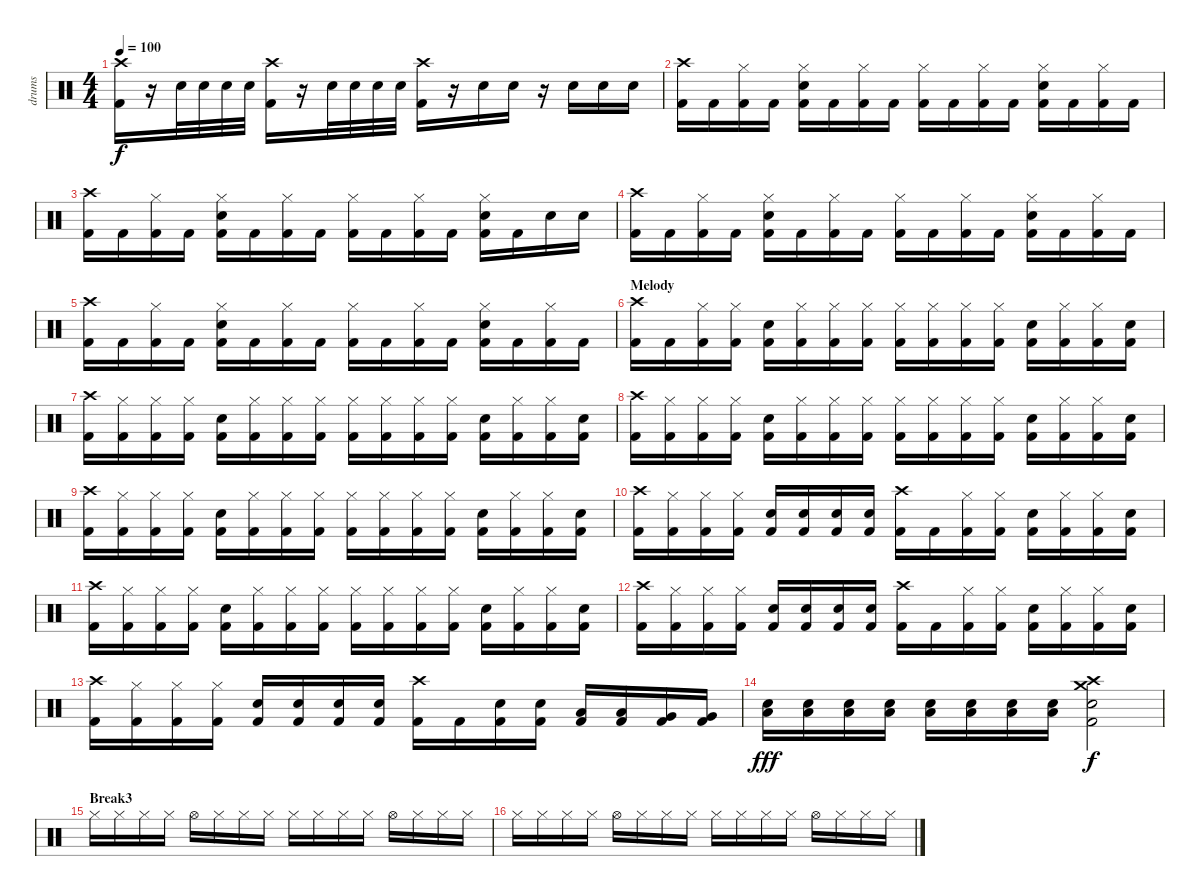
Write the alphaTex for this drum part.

\track ("drums" "drums") {instrument percussion}
\staff {score}
\articulation defaults
\ts (4 4)
\tempo 100
\clef neutral
\ks c
("Crash high (hit)" "Kick (hit) 2").16{dy f} r.16 "Snare (hit) 2".32 "Snare (hit) 2".32 "Snare (hit) 2".32 "Snare (hit) 2".32 ("Crash high (hit)" "Kick (hit) 2").16 r.16 "Snare (hit) 2".32 "Snare (hit) 2".32 "Snare (hit) 2".32 "Snare (hit) 2".32 ("Crash high (hit)" "Kick (hit) 2").16 r.16 "Snare (hit) 2".16 "Snare (hit) 2".16 r.16 "Snare (hit) 2".16 "Snare (hit) 2".16 "Snare (hit) 2".16 |
("Crash high (hit)" "Kick (hit) 2").16 "Kick (hit) 2".16 ("Hi-Hat (closed)" "Kick (hit) 2").16 "Kick (hit) 2".16 ("Hi-Hat (closed)" "Snare (hit) 2" "Kick (hit) 2").16 "Kick (hit) 2".16 ("Hi-Hat (closed)" "Kick (hit) 2").16 "Kick (hit) 2".16 ("Hi-Hat (closed)" "Kick (hit) 2").16 "Kick (hit) 2".16 ("Hi-Hat (closed)" "Kick (hit) 2").16 "Kick (hit) 2".16 ("Hi-Hat (closed)" "Snare (hit) 2" "Kick (hit) 2").16 "Kick (hit) 2".16 ("Hi-Hat (closed)" "Kick (hit) 2").16 "Kick (hit) 2".16 |
("Crash high (hit)" "Kick (hit) 2").16 "Kick (hit) 2".16 ("Hi-Hat (closed)" "Kick (hit) 2").16 "Kick (hit) 2".16 ("Hi-Hat (closed)" "Snare (hit) 2" "Kick (hit) 2").16 "Kick (hit) 2".16 ("Hi-Hat (closed)" "Kick (hit) 2").16 "Kick (hit) 2".16 ("Hi-Hat (closed)" "Kick (hit) 2").16 "Kick (hit) 2".16 ("Hi-Hat (closed)" "Kick (hit) 2").16 "Kick (hit) 2".16 ("Hi-Hat (closed)" "Snare (hit) 2" "Kick (hit) 2").16 "Kick (hit) 2".16 "Snare (hit) 2".16 "Snare (hit) 2".16 |
("Crash high (hit)" "Kick (hit) 2").16 "Kick (hit) 2".16 ("Hi-Hat (closed)" "Kick (hit) 2").16 "Kick (hit) 2".16 ("Hi-Hat (closed)" "Snare (hit) 2" "Kick (hit) 2").16 "Kick (hit) 2".16 ("Hi-Hat (closed)" "Kick (hit) 2").16 "Kick (hit) 2".16 ("Hi-Hat (closed)" "Kick (hit) 2").16 "Kick (hit) 2".16 ("Hi-Hat (closed)" "Kick (hit) 2").16 "Kick (hit) 2".16 ("Hi-Hat (closed)" "Snare (hit) 2" "Kick (hit) 2").16 "Kick (hit) 2".16 ("Hi-Hat (closed)" "Kick (hit) 2").16 "Kick (hit) 2".16 |
("Crash high (hit)" "Kick (hit) 2").16 "Kick (hit) 2".16 ("Hi-Hat (closed)" "Kick (hit) 2").16 "Kick (hit) 2".16 ("Hi-Hat (closed)" "Snare (hit) 2" "Kick (hit) 2").16 "Kick (hit) 2".16 ("Hi-Hat (closed)" "Kick (hit) 2").16 "Kick (hit) 2".16 ("Hi-Hat (closed)" "Kick (hit) 2").16 "Kick (hit) 2".16 ("Hi-Hat (closed)" "Kick (hit) 2").16 "Kick (hit) 2".16 ("Hi-Hat (closed)" "Snare (hit) 2" "Kick (hit) 2").16 "Kick (hit) 2".16 ("Hi-Hat (closed)" "Kick (hit) 2").16 "Kick (hit) 2".16 |
\section ("" "Melody")
("Crash high (hit)" "Kick (hit) 2").16 "Kick (hit) 2".16 ("Hi-Hat (closed)" "Kick (hit) 2").16 ("Hi-Hat (closed)" "Kick (hit) 2").16 ("Snare (hit) 2" "Kick (hit) 2").16 ("Hi-Hat (closed)" "Kick (hit) 2").16 ("Hi-Hat (closed)" "Kick (hit) 2").16 ("Hi-Hat (closed)" "Kick (hit) 2").16 ("Hi-Hat (closed)" "Kick (hit) 2").16 ("Hi-Hat (closed)" "Kick (hit) 2").16 ("Hi-Hat (closed)" "Kick (hit) 2").16 ("Hi-Hat (closed)" "Kick (hit) 2").16 ("Snare (hit) 2" "Kick (hit) 2").16 ("Hi-Hat (closed)" "Kick (hit) 2").16 ("Hi-Hat (closed)" "Kick (hit) 2").16 ("Snare (hit) 2" "Kick (hit) 2").16 |
("Crash high (hit)" "Kick (hit) 2").16 ("Hi-Hat (closed)" "Kick (hit) 2").16 ("Hi-Hat (closed)" "Kick (hit) 2").16 ("Hi-Hat (closed)" "Kick (hit) 2").16 ("Snare (hit) 2" "Kick (hit) 2").16 ("Hi-Hat (closed)" "Kick (hit) 2").16 ("Hi-Hat (closed)" "Kick (hit) 2").16 ("Hi-Hat (closed)" "Kick (hit) 2").16 ("Hi-Hat (closed)" "Kick (hit) 2").16 ("Hi-Hat (closed)" "Kick (hit) 2").16 ("Hi-Hat (closed)" "Kick (hit) 2").16 ("Hi-Hat (closed)" "Kick (hit) 2").16 ("Snare (hit) 2" "Kick (hit) 2").16 ("Hi-Hat (closed)" "Kick (hit) 2").16 ("Hi-Hat (closed)" "Kick (hit) 2").16 ("Snare (hit) 2" "Kick (hit) 2").16 |
("Crash high (hit)" "Kick (hit) 2").16 ("Hi-Hat (closed)" "Kick (hit) 2").16 ("Hi-Hat (closed)" "Kick (hit) 2").16 ("Hi-Hat (closed)" "Kick (hit) 2").16 ("Snare (hit) 2" "Kick (hit) 2").16 ("Hi-Hat (closed)" "Kick (hit) 2").16 ("Hi-Hat (closed)" "Kick (hit) 2").16 ("Hi-Hat (closed)" "Kick (hit) 2").16 ("Hi-Hat (closed)" "Kick (hit) 2").16 ("Hi-Hat (closed)" "Kick (hit) 2").16 ("Hi-Hat (closed)" "Kick (hit) 2").16 ("Hi-Hat (closed)" "Kick (hit) 2").16 ("Snare (hit) 2" "Kick (hit) 2").16 ("Hi-Hat (closed)" "Kick (hit) 2").16 ("Hi-Hat (closed)" "Kick (hit) 2").16 ("Snare (hit) 2" "Kick (hit) 2").16 |
("Crash high (hit)" "Kick (hit) 2").16 ("Hi-Hat (closed)" "Kick (hit) 2").16 ("Hi-Hat (closed)" "Kick (hit) 2").16 ("Hi-Hat (closed)" "Kick (hit) 2").16 ("Snare (hit) 2" "Kick (hit) 2").16 ("Hi-Hat (closed)" "Kick (hit) 2").16 ("Hi-Hat (closed)" "Kick (hit) 2").16 ("Hi-Hat (closed)" "Kick (hit) 2").16 ("Hi-Hat (closed)" "Kick (hit) 2").16 ("Hi-Hat (closed)" "Kick (hit) 2").16 ("Hi-Hat (closed)" "Kick (hit) 2").16 ("Hi-Hat (closed)" "Kick (hit) 2").16 ("Snare (hit) 2" "Kick (hit) 2").16 ("Hi-Hat (closed)" "Kick (hit) 2").16 ("Hi-Hat (closed)" "Kick (hit) 2").16 ("Snare (hit) 2" "Kick (hit) 2").16 |
("Crash high (hit)" "Kick (hit) 2").16 ("Hi-Hat (closed)" "Kick (hit) 2").16 ("Hi-Hat (closed)" "Kick (hit) 2").16 ("Hi-Hat (closed)" "Kick (hit) 2").16 ("Snare (hit) 2" "Kick (hit) 2").16 ("Snare (hit) 2" "Kick (hit) 2").16 ("Snare (hit) 2" "Kick (hit) 2").16 ("Snare (hit) 2" "Kick (hit) 2").16 ("Crash high (hit)" "Kick (hit) 2").16 "Kick (hit) 2".16 ("Hi-Hat (closed)" "Kick (hit) 2").16 ("Hi-Hat (closed)" "Kick (hit) 2").16 ("Snare (hit) 2" "Kick (hit) 2").16 ("Hi-Hat (closed)" "Kick (hit) 2").16 ("Hi-Hat (closed)" "Kick (hit) 2").16 ("Snare (hit) 2" "Kick (hit) 2").16 |
("Crash high (hit)" "Kick (hit) 2").16 ("Hi-Hat (closed)" "Kick (hit) 2").16 ("Hi-Hat (closed)" "Kick (hit) 2").16 ("Hi-Hat (closed)" "Kick (hit) 2").16 ("Snare (hit) 2" "Kick (hit) 2").16 ("Hi-Hat (closed)" "Kick (hit) 2").16 ("Hi-Hat (closed)" "Kick (hit) 2").16 ("Hi-Hat (closed)" "Kick (hit) 2").16 ("Hi-Hat (closed)" "Kick (hit) 2").16 ("Hi-Hat (closed)" "Kick (hit) 2").16 ("Hi-Hat (closed)" "Kick (hit) 2").16 ("Hi-Hat (closed)" "Kick (hit) 2").16 ("Snare (hit) 2" "Kick (hit) 2").16 ("Hi-Hat (closed)" "Kick (hit) 2").16 ("Hi-Hat (closed)" "Kick (hit) 2").16 ("Snare (hit) 2" "Kick (hit) 2").16 |
("Crash high (hit)" "Kick (hit) 2").16 ("Hi-Hat (closed)" "Kick (hit) 2").16 ("Hi-Hat (closed)" "Kick (hit) 2").16 ("Hi-Hat (closed)" "Kick (hit) 2").16 ("Snare (hit) 2" "Kick (hit) 2").16 ("Snare (hit) 2" "Kick (hit) 2").16 ("Snare (hit) 2" "Kick (hit) 2").16 ("Snare (hit) 2" "Kick (hit) 2").16 ("Crash high (hit)" "Kick (hit) 2").16 "Kick (hit) 2".16 ("Hi-Hat (closed)" "Kick (hit) 2").16 ("Hi-Hat (closed)" "Kick (hit) 2").16 ("Snare (hit) 2" "Kick (hit) 2").16 ("Hi-Hat (closed)" "Kick (hit) 2").16 ("Hi-Hat (closed)" "Kick (hit) 2").16 ("Snare (hit) 2" "Kick (hit) 2").16 |
("Crash high (hit)" "Kick (hit) 2").16 ("Hi-Hat (closed)" "Kick (hit) 2").16 ("Hi-Hat (closed)" "Kick (hit) 2").16 ("Hi-Hat (closed)" "Kick (hit) 2").16 ("Snare (hit) 2" "Kick (hit) 2").16 ("Snare (hit) 2" "Kick (hit) 2").16 ("Snare (hit) 2" "Kick (hit) 2").16 ("Snare (hit) 2" "Kick (hit) 2").16 ("Crash high (hit)" "Kick (hit) 2").16 "Kick (hit) 2".16 ("Snare (hit) 2" "Kick (hit) 2").16 ("Snare (hit) 2" "Kick (hit) 2").16 ("Low Tom (hit)" "Kick (hit) 2").16 ("Low Tom (hit)" "Kick (hit) 2").16 ("Very Low Tom (hit)" "Kick (hit) 2").16 ("Very Low Tom (hit)" "Kick (hit) 2").16 |
("Low Floor Tom (hit)" "Snare (hit) 2").16{dy fff} ("Low Floor Tom (hit)" "Snare (hit) 2").16 ("Low Floor Tom (hit)" "Snare (hit) 2").16 ("Low Floor Tom (hit)" "Snare (hit) 2").16 ("Low Floor Tom (hit)" "Snare (hit) 2").16 ("Low Floor Tom (hit)" "Snare (hit) 2").16 ("Low Floor Tom (hit)" "Snare (hit) 2").16 ("Low Floor Tom (hit)" "Snare (hit) 2").16 ("Crash high (hit)" "Crash medium (hit)" "Kick (hit) 2" "Snare (hit) 2").2{dy f} |
\section ("" "Break3")
"Hi-Hat (closed)".16 "Hi-Hat (closed)".16 "Hi-Hat (closed)".16 "Hi-Hat (closed)".16 "Hi-Hat (open)".16 "Hi-Hat (closed)".16 "Hi-Hat (closed)".16 "Hi-Hat (closed)".16 "Hi-Hat (closed)".16 "Hi-Hat (closed)".16 "Hi-Hat (closed)".16 "Hi-Hat (closed)".16 "Hi-Hat (open)".16 "Hi-Hat (closed)".16 "Hi-Hat (closed)".16 "Hi-Hat (closed)".16 |
"Hi-Hat (closed)".16 "Hi-Hat (closed)".16 "Hi-Hat (closed)".16 "Hi-Hat (closed)".16 "Hi-Hat (open)".16 "Hi-Hat (closed)".16 "Hi-Hat (closed)".16 "Hi-Hat (closed)".16 "Hi-Hat (closed)".16 "Hi-Hat (closed)".16 "Hi-Hat (closed)".16 "Hi-Hat (closed)".16 "Hi-Hat (open)".16 "Hi-Hat (closed)".16 "Hi-Hat (closed)".16 "Hi-Hat (closed)".16
